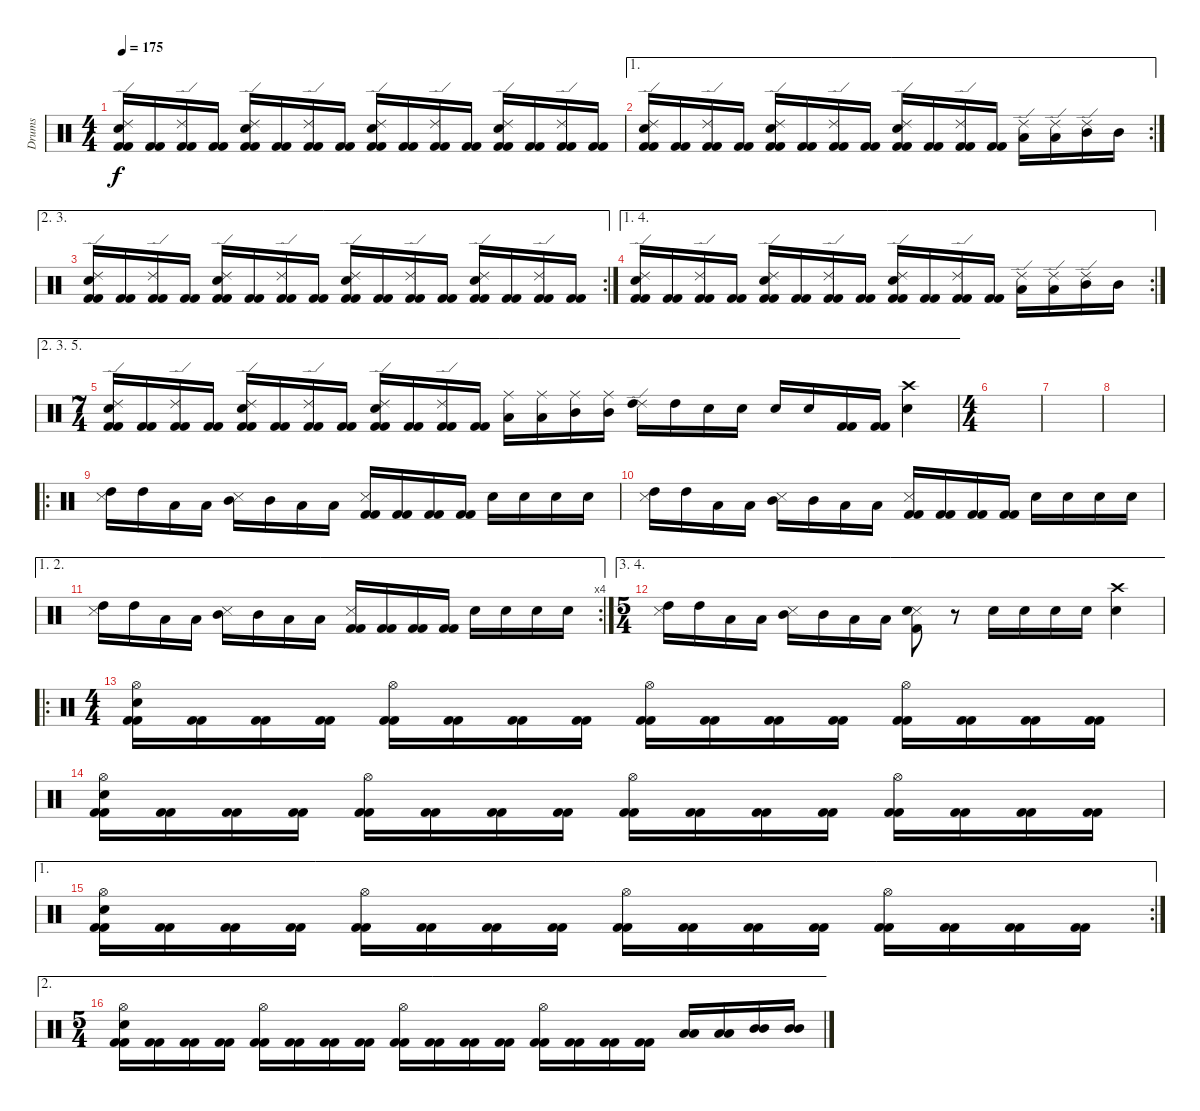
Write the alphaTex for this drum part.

\track ("Drums " "Drums ") {instrument percussion}
\staff {score}
\articulation defaults
\ts (4 4)
\tempo 175
\clef neutral
\ks c
("Ride (edge) 2" "Electric Snare (hit)" "Kick (hit) 2" "Kick (hit) 2").16{dy f} ("Kick (hit) 2" "Kick (hit) 2").16 ("Ride (edge) 2" "Kick (hit) 2" "Kick (hit) 2").16 ("Kick (hit) 2" "Kick (hit) 2").16 ("Ride (edge) 2" "Electric Snare (hit)" "Kick (hit) 2" "Kick (hit) 2").16 ("Kick (hit) 2" "Kick (hit) 2").16 ("Ride (edge) 2" "Kick (hit) 2" "Kick (hit) 2").16 ("Kick (hit) 2" "Kick (hit) 2").16 ("Ride (edge) 2" "Electric Snare (hit)" "Kick (hit) 2" "Kick (hit) 2").16 ("Kick (hit) 2" "Kick (hit) 2").16 ("Ride (edge) 2" "Kick (hit) 2" "Kick (hit) 2").16 ("Kick (hit) 2" "Kick (hit) 2").16 ("Ride (edge) 2" "Electric Snare (hit)" "Kick (hit) 2" "Kick (hit) 2").16 ("Kick (hit) 2" "Kick (hit) 2").16 ("Ride (edge) 2" "Kick (hit) 2" "Kick (hit) 2").16 ("Kick (hit) 2" "Kick (hit) 2").16 |
\ae 1
\rc 2
("Ride (edge) 2" "Electric Snare (hit)" "Kick (hit) 2" "Kick (hit) 2").16 ("Kick (hit) 2" "Kick (hit) 2").16 ("Ride (edge) 2" "Kick (hit) 2" "Kick (hit) 2").16 ("Kick (hit) 2" "Kick (hit) 2").16 ("Ride (edge) 2" "Electric Snare (hit)" "Kick (hit) 2" "Kick (hit) 2").16 ("Kick (hit) 2" "Kick (hit) 2").16 ("Ride (edge) 2" "Kick (hit) 2" "Kick (hit) 2").16 ("Kick (hit) 2" "Kick (hit) 2").16 ("Ride (edge) 2" "Electric Snare (hit)" "Kick (hit) 2" "Kick (hit) 2").16 ("Kick (hit) 2" "Kick (hit) 2").16 ("Ride (edge) 2" "Kick (hit) 2" "Kick (hit) 2").16 ("Kick (hit) 2" "Kick (hit) 2").16 ("Ride (edge) 2" "Low Tom (hit)").16 ("Ride (edge) 2" "Low Tom (hit)").16 ("Ride (edge) 2" "Mid Tom (hit)").16 "Mid Tom (hit)".16 |
\ae (2 3)
\rc 2
("Ride (edge) 2" "Electric Snare (hit)" "Kick (hit) 2" "Kick (hit) 2").16 ("Kick (hit) 2" "Kick (hit) 2").16 ("Ride (edge) 2" "Kick (hit) 2" "Kick (hit) 2").16 ("Kick (hit) 2" "Kick (hit) 2").16 ("Ride (edge) 2" "Electric Snare (hit)" "Kick (hit) 2" "Kick (hit) 2").16 ("Kick (hit) 2" "Kick (hit) 2").16 ("Ride (edge) 2" "Kick (hit) 2" "Kick (hit) 2").16 ("Kick (hit) 2" "Kick (hit) 2").16 ("Ride (edge) 2" "Electric Snare (hit)" "Kick (hit) 2" "Kick (hit) 2").16 ("Kick (hit) 2" "Kick (hit) 2").16 ("Ride (edge) 2" "Kick (hit) 2" "Kick (hit) 2").16 ("Kick (hit) 2" "Kick (hit) 2").16 ("Ride (edge) 2" "Electric Snare (hit)" "Kick (hit) 2" "Kick (hit) 2").16 ("Kick (hit) 2" "Kick (hit) 2").16 ("Ride (edge) 2" "Kick (hit) 2" "Kick (hit) 2").16 ("Kick (hit) 2" "Kick (hit) 2").16 |
\ae (1 4)
\rc 2
("Ride (edge) 2" "Electric Snare (hit)" "Kick (hit) 2" "Kick (hit) 2").16 ("Kick (hit) 2" "Kick (hit) 2").16 ("Ride (edge) 2" "Kick (hit) 2" "Kick (hit) 2").16 ("Kick (hit) 2" "Kick (hit) 2").16 ("Ride (edge) 2" "Electric Snare (hit)" "Kick (hit) 2" "Kick (hit) 2").16 ("Kick (hit) 2" "Kick (hit) 2").16 ("Ride (edge) 2" "Kick (hit) 2" "Kick (hit) 2").16 ("Kick (hit) 2" "Kick (hit) 2").16 ("Ride (edge) 2" "Electric Snare (hit)" "Kick (hit) 2" "Kick (hit) 2").16 ("Kick (hit) 2" "Kick (hit) 2").16 ("Ride (edge) 2" "Kick (hit) 2" "Kick (hit) 2").16 ("Kick (hit) 2" "Kick (hit) 2").16 ("Ride (edge) 2" "Low Tom (hit)").16 ("Ride (edge) 2" "Low Tom (hit)").16 ("Ride (edge) 2" "Mid Tom (hit)").16 "Mid Tom (hit)".16 |
\ae (2 3 5)
\ts (7 4)
("Ride (edge) 2" "Electric Snare (hit)" "Kick (hit) 2" "Kick (hit) 2").16 ("Kick (hit) 2" "Kick (hit) 2").16 ("Ride (edge) 2" "Kick (hit) 2" "Kick (hit) 2").16 ("Kick (hit) 2" "Kick (hit) 2").16 ("Ride (edge) 2" "Electric Snare (hit)" "Kick (hit) 2" "Kick (hit) 2").16 ("Kick (hit) 2" "Kick (hit) 2").16 ("Ride (edge) 2" "Kick (hit) 2" "Kick (hit) 2").16 ("Kick (hit) 2" "Kick (hit) 2").16 ("Ride (edge) 2" "Electric Snare (hit)" "Kick (hit) 2" "Kick (hit) 2").16 ("Kick (hit) 2" "Kick (hit) 2").16 ("Ride (edge) 2" "Kick (hit) 2" "Kick (hit) 2").16 ("Kick (hit) 2" "Kick (hit) 2").16 ("Ride (middle)" "Low Tom (hit)").16 ("Ride (middle)" "Low Tom (hit)").16 ("Ride (middle)" "Mid Tom (hit)").16 ("Ride (middle)" "Mid Tom (hit)").16 ("Ride (edge) 2" "High Tom (hit)").16 "High Tom (hit)".16 "Electric Snare (hit)".16 "Electric Snare (hit)".16 "Electric Snare (hit)".16 "Electric Snare (hit)".16 ("Kick (hit) 2" "Kick (hit) 2").16 ("Kick (hit) 2" "Kick (hit) 2").16 ("Crash high (hit)" "Electric Snare (hit)").4 |
\ts (4 4)
|
|
|
\ro
("Metronome (hit)" "High Tom (hit)").16 "High Tom (hit)".16 "Low Tom (hit)".16 "Low Tom (hit)".16 ("Metronome (hit)" "Mid Tom (hit)").16 "Mid Tom (hit)".16 "Low Tom (hit)".16 "Low Tom (hit)".16 ("Metronome (hit)" "Kick (hit) 2" "Kick (hit) 2").16 ("Kick (hit) 2" "Kick (hit) 2").16 ("Kick (hit) 2" "Kick (hit) 2").16 ("Kick (hit) 2" "Kick (hit) 2").16 "Electric Snare (hit)".16 "Electric Snare (hit)".16 "Electric Snare (hit)".16 "Electric Snare (hit)".16 |
("Metronome (hit)" "High Tom (hit)").16 "High Tom (hit)".16 "Low Tom (hit)".16 "Low Tom (hit)".16 ("Metronome (hit)" "Mid Tom (hit)").16 "Mid Tom (hit)".16 "Low Tom (hit)".16 "Low Tom (hit)".16 ("Metronome (hit)" "Kick (hit) 2" "Kick (hit) 2").16 ("Kick (hit) 2" "Kick (hit) 2").16 ("Kick (hit) 2" "Kick (hit) 2").16 ("Kick (hit) 2" "Kick (hit) 2").16 "Electric Snare (hit)".16 "Electric Snare (hit)".16 "Electric Snare (hit)".16 "Electric Snare (hit)".16 |
\ae (1 2)
\rc 4
("Metronome (hit)" "High Tom (hit)").16 "High Tom (hit)".16 "Low Tom (hit)".16 "Low Tom (hit)".16 ("Metronome (hit)" "Mid Tom (hit)").16 "Mid Tom (hit)".16 "Low Tom (hit)".16 "Low Tom (hit)".16 ("Metronome (hit)" "Kick (hit) 2" "Kick (hit) 2").16 ("Kick (hit) 2" "Kick (hit) 2").16 ("Kick (hit) 2" "Kick (hit) 2").16 ("Kick (hit) 2" "Kick (hit) 2").16 "Electric Snare (hit)".16 "Electric Snare (hit)".16 "Electric Snare (hit)".16 "Electric Snare (hit)".16 |
\ae (3 4)
\ts (5 4)
("Metronome (hit)" "High Tom (hit)").16 "High Tom (hit)".16 "Low Tom (hit)".16 "Low Tom (hit)".16 ("Metronome (hit)" "Mid Tom (hit)").16 "Mid Tom (hit)".16 "Low Tom (hit)".16 "Low Tom (hit)".16 ("Metronome (hit)" "Electric Snare (hit)" "Kick (hit) 2").8 r.8 "Electric Snare (hit)".16 "Electric Snare (hit)".16 "Electric Snare (hit)".16 "Electric Snare (hit)".16 ("Crash high (hit)" "Electric Snare (hit)").4 |
\ro
\ts (4 4)
("Hi-Hat (open)" "Electric Snare (hit)" "Kick (hit) 2" "Kick (hit) 2").16 ("Kick (hit) 2" "Kick (hit) 2").16 ("Kick (hit) 2" "Kick (hit) 2").16 ("Kick (hit) 2" "Kick (hit) 2").16 ("Hi-Hat (open)" "Kick (hit) 2" "Kick (hit) 2").16 ("Kick (hit) 2" "Kick (hit) 2").16 ("Kick (hit) 2" "Kick (hit) 2").16 ("Kick (hit) 2" "Kick (hit) 2").16 ("Hi-Hat (open)" "Kick (hit) 2" "Kick (hit) 2").16 ("Kick (hit) 2" "Kick (hit) 2").16 ("Kick (hit) 2" "Kick (hit) 2").16 ("Kick (hit) 2" "Kick (hit) 2").16 ("Hi-Hat (open)" "Kick (hit) 2" "Kick (hit) 2").16 ("Kick (hit) 2" "Kick (hit) 2").16 ("Kick (hit) 2" "Kick (hit) 2").16 ("Kick (hit) 2" "Kick (hit) 2").16 |
("Hi-Hat (open)" "Electric Snare (hit)" "Kick (hit) 2" "Kick (hit) 2").16 ("Kick (hit) 2" "Kick (hit) 2").16 ("Kick (hit) 2" "Kick (hit) 2").16 ("Kick (hit) 2" "Kick (hit) 2").16 ("Hi-Hat (open)" "Kick (hit) 2" "Kick (hit) 2").16 ("Kick (hit) 2" "Kick (hit) 2").16 ("Kick (hit) 2" "Kick (hit) 2").16 ("Kick (hit) 2" "Kick (hit) 2").16 ("Hi-Hat (open)" "Kick (hit) 2" "Kick (hit) 2").16 ("Kick (hit) 2" "Kick (hit) 2").16 ("Kick (hit) 2" "Kick (hit) 2").16 ("Kick (hit) 2" "Kick (hit) 2").16 ("Hi-Hat (open)" "Kick (hit) 2" "Kick (hit) 2").16 ("Kick (hit) 2" "Kick (hit) 2").16 ("Kick (hit) 2" "Kick (hit) 2").16 ("Kick (hit) 2" "Kick (hit) 2").16 |
\ae 1
\rc 2
("Hi-Hat (open)" "Electric Snare (hit)" "Kick (hit) 2" "Kick (hit) 2").16 ("Kick (hit) 2" "Kick (hit) 2").16 ("Kick (hit) 2" "Kick (hit) 2").16 ("Kick (hit) 2" "Kick (hit) 2").16 ("Hi-Hat (open)" "Kick (hit) 2" "Kick (hit) 2").16 ("Kick (hit) 2" "Kick (hit) 2").16 ("Kick (hit) 2" "Kick (hit) 2").16 ("Kick (hit) 2" "Kick (hit) 2").16 ("Hi-Hat (open)" "Kick (hit) 2" "Kick (hit) 2").16 ("Kick (hit) 2" "Kick (hit) 2").16 ("Kick (hit) 2" "Kick (hit) 2").16 ("Kick (hit) 2" "Kick (hit) 2").16 ("Hi-Hat (open)" "Kick (hit) 2" "Kick (hit) 2").16 ("Kick (hit) 2" "Kick (hit) 2").16 ("Kick (hit) 2" "Kick (hit) 2").16 ("Kick (hit) 2" "Kick (hit) 2").16 |
\ae 2
\ts (5 4)
("Hi-Hat (open)" "Electric Snare (hit)" "Kick (hit) 2" "Kick (hit) 2").16 ("Kick (hit) 2" "Kick (hit) 2").16 ("Kick (hit) 2" "Kick (hit) 2").16 ("Kick (hit) 2" "Kick (hit) 2").16 ("Hi-Hat (open)" "Kick (hit) 2" "Kick (hit) 2").16 ("Kick (hit) 2" "Kick (hit) 2").16 ("Kick (hit) 2" "Kick (hit) 2").16 ("Kick (hit) 2" "Kick (hit) 2").16 ("Hi-Hat (open)" "Kick (hit) 2" "Kick (hit) 2").16 ("Kick (hit) 2" "Kick (hit) 2").16 ("Kick (hit) 2" "Kick (hit) 2").16 ("Kick (hit) 2" "Kick (hit) 2").16 ("Hi-Hat (open)" "Kick (hit) 2" "Kick (hit) 2").16 ("Kick (hit) 2" "Kick (hit) 2").16 ("Kick (hit) 2" "Kick (hit) 2").16 ("Kick (hit) 2" "Kick (hit) 2").16 ("Low Tom (hit)" "Low Tom (hit)").16 ("Low Tom (hit)" "Low Tom (hit)").16 ("Mid Tom (hit)" "Mid Tom (hit)").16 ("Mid Tom (hit)" "Mid Tom (hit)").16
